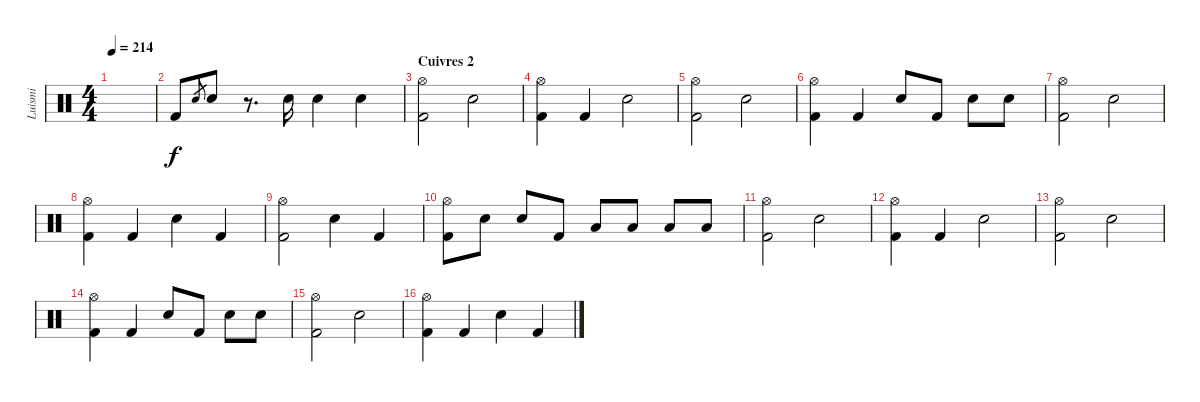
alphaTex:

\track ("Luismi" "Luismi") {instrument percussion}
\staff {score}
\articulation defaults
\ts (4 4)
\tempo 214
\clef neutral
\ks c
|
"Kick (hit) 2".8 "Snare (hit) 2".8{gr} "Snare (hit) 2".8 r.8{d} "Snare (hit) 2".16 "Snare (hit) 2".4 "Snare (hit) 2".4 |
\section ("" "Cuivres 2")
("Hi-Hat (open)" "Kick (hit) 2").2 "Snare (hit) 2".2 |
("Hi-Hat (open)" "Kick (hit) 2").4 "Kick (hit) 2".4 "Snare (hit) 2".2 |
("Hi-Hat (open)" "Kick (hit) 2").2 "Snare (hit) 2".2 |
("Hi-Hat (open)" "Kick (hit) 2").4 "Kick (hit) 2".4 "Snare (hit) 2".8 "Kick (hit) 2".8 "Snare (hit) 2".8 "Snare (hit) 2".8 |
("Hi-Hat (open)" "Kick (hit) 2").2 "Snare (hit) 2".2 |
("Hi-Hat (open)" "Kick (hit) 2").4 "Kick (hit) 2".4 "Snare (hit) 2".4 "Kick (hit) 2".4 |
("Hi-Hat (open)" "Kick (hit) 2").2 "Snare (hit) 2".4 "Kick (hit) 2".4 |
("Hi-Hat (open)" "Kick (hit) 2").8 "Snare (hit) 2".8 "Snare (hit) 2".8 "Kick (hit) 2".8 "Low Tom (hit)".8 "Low Tom (hit)".8 "Low Floor Tom (hit)".8 "Low Floor Tom (hit)".8 |
("Hi-Hat (open)" "Kick (hit) 2").2 "Snare (hit) 2".2 |
("Hi-Hat (open)" "Kick (hit) 2").4 "Kick (hit) 2".4 "Snare (hit) 2".2 |
("Hi-Hat (open)" "Kick (hit) 2").2 "Snare (hit) 2".2 |
("Hi-Hat (open)" "Kick (hit) 2").4 "Kick (hit) 2".4 "Snare (hit) 2".8 "Kick (hit) 2".8 "Snare (hit) 2".8 "Snare (hit) 2".8 |
("Hi-Hat (open)" "Kick (hit) 2").2 "Snare (hit) 2".2 |
("Hi-Hat (open)" "Kick (hit) 2").4 "Kick (hit) 2".4 "Snare (hit) 2".4 "Kick (hit) 2".4
